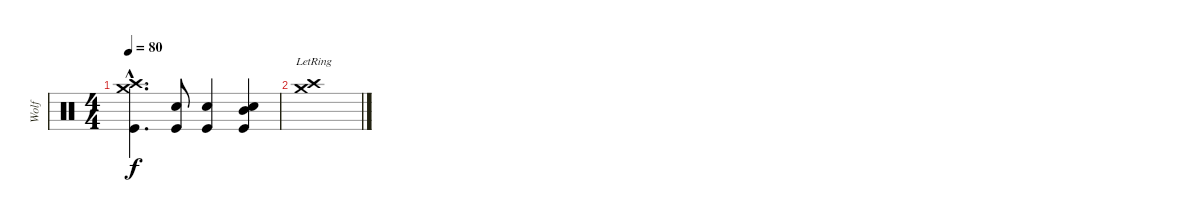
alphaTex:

\track ("Wolf" "Wolf") {instrument percussion}
\staff {score}
\articulation defaults
\ts (4 4)
\tempo 80
\clef neutral
\ks c
("Crash high (hit)"{hac} "Crash medium (hit)"{hac} "Kick (hit)"{hac}).4{d dy f} ("Snare (hit) 2" "Kick (hit)").8 ("Snare (hit) 2" "Kick (hit)").4 ("Mid Tom (hit)" "Snare (hit) 2" "Kick (hit)").4 |
("Crash high (hit)"{lr} "Crash medium (hit)"{lr}).1
